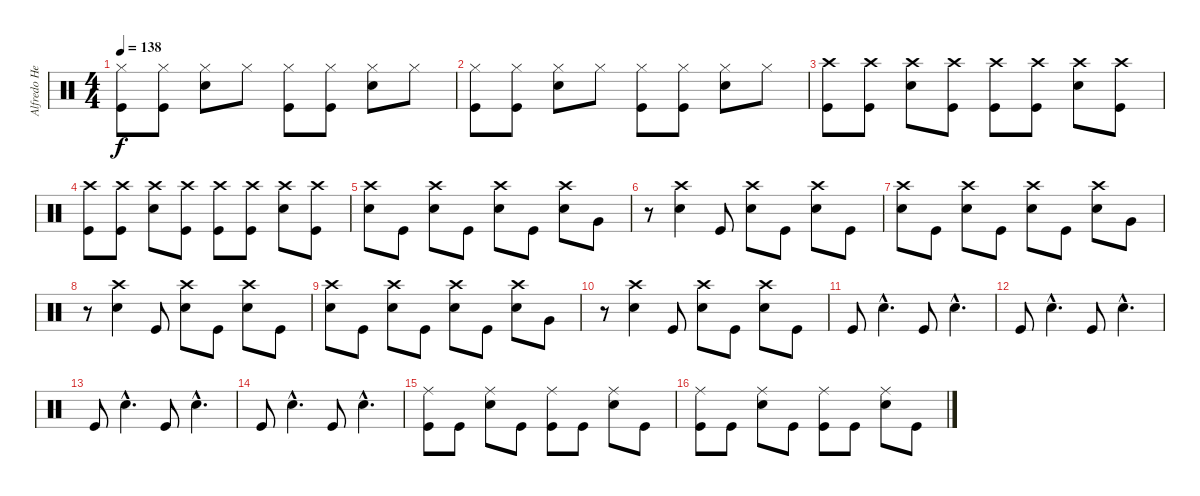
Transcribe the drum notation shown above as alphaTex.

\track ("Alfredo Hernandez" "Alfredo He") {instrument percussion}
\staff {score}
\articulation defaults
\ts (4 4)
\tempo 138
\clef neutral
\ks c
("Kick (hit)" "Hi-Hat (closed)").8{dy f} ("Kick (hit)" "Hi-Hat (closed)").8 ("Snare (hit) 2" "Hi-Hat (closed)").8 "Hi-Hat (closed)".8 ("Kick (hit)" "Hi-Hat (closed)").8 ("Kick (hit)" "Hi-Hat (closed)").8 ("Snare (hit) 2" "Hi-Hat (closed)").8 "Hi-Hat (closed)".8 |
("Kick (hit)" "Hi-Hat (closed)").8 ("Kick (hit)" "Hi-Hat (closed)").8 ("Snare (hit) 2" "Hi-Hat (closed)").8 "Hi-Hat (closed)".8 ("Kick (hit)" "Hi-Hat (closed)").8 ("Kick (hit)" "Hi-Hat (closed)").8 ("Snare (hit) 2" "Hi-Hat (closed)").8 "Hi-Hat (closed)".8 |
("Kick (hit)" "Crash high (hit)").8 ("Kick (hit)" "Crash high (hit)").8 ("Snare (hit) 2" "Crash high (hit)").8 ("Kick (hit)" "Crash high (hit)").8 ("Kick (hit)" "Crash high (hit)").8 ("Kick (hit)" "Crash high (hit)").8 ("Snare (hit) 2" "Crash high (hit)").8 ("Kick (hit)" "Crash high (hit)").8 |
("Kick (hit)" "Crash high (hit)").8 ("Kick (hit)" "Crash high (hit)").8 ("Snare (hit) 2" "Crash high (hit)").8 ("Kick (hit)" "Crash high (hit)").8 ("Kick (hit)" "Crash high (hit)").8 ("Kick (hit)" "Crash high (hit)").8 ("Snare (hit) 2" "Crash high (hit)").8 ("Kick (hit)" "Crash high (hit)").8 |
("Snare (hit) 2" "Crash high (hit)").8 "Kick (hit)".8 ("Snare (hit) 2" "Crash high (hit)").8 "Kick (hit)".8 ("Snare (hit) 2" "Crash high (hit)").8 "Kick (hit)".8 ("Snare (hit) 2" "Crash high (hit)").8 "Very Low Tom (hit)".8 |
r.8 ("Snare (hit) 2" "Crash high (hit)").4 "Kick (hit)".8 ("Snare (hit) 2" "Crash high (hit)").8 "Kick (hit)".8 ("Snare (hit) 2" "Crash high (hit)").8 "Kick (hit)".8 |
("Snare (hit) 2" "Crash high (hit)").8 "Kick (hit)".8 ("Snare (hit) 2" "Crash high (hit)").8 "Kick (hit)".8 ("Snare (hit) 2" "Crash high (hit)").8 "Kick (hit)".8 ("Snare (hit) 2" "Crash high (hit)").8 "Very Low Tom (hit)".8 |
r.8 ("Snare (hit) 2" "Crash high (hit)").4 "Kick (hit)".8 ("Snare (hit) 2" "Crash high (hit)").8 "Kick (hit)".8 ("Snare (hit) 2" "Crash high (hit)").8 "Kick (hit)".8 |
("Snare (hit) 2" "Crash high (hit)").8 "Kick (hit)".8 ("Snare (hit) 2" "Crash high (hit)").8 "Kick (hit)".8 ("Snare (hit) 2" "Crash high (hit)").8 "Kick (hit)".8 ("Snare (hit) 2" "Crash high (hit)").8 "Very Low Tom (hit)".8 |
r.8 ("Snare (hit) 2" "Crash high (hit)").4 "Kick (hit)".8 ("Snare (hit) 2" "Crash high (hit)").8 "Kick (hit)".8 ("Snare (hit) 2" "Crash high (hit)").8 "Kick (hit)".8 |
"Kick (hit)".8 "Snare (hit) 2"{hac}.4{d} "Kick (hit)".8 "Snare (hit) 2"{hac}.4{d} |
"Kick (hit)".8 "Snare (hit) 2"{hac}.4{d} "Kick (hit)".8 "Snare (hit) 2"{hac}.4{d} |
"Kick (hit)".8 "Snare (hit) 2"{hac}.4{d} "Kick (hit)".8 "Snare (hit) 2"{hac}.4{d} |
"Kick (hit)".8 "Snare (hit) 2"{hac}.4{d} "Kick (hit)".8 "Snare (hit) 2"{hac}.4{d} |
("Kick (hit)" "Ride (middle)").8 "Kick (hit)".8 ("Snare (hit) 2" "Ride (middle)").8 "Kick (hit)".8 ("Kick (hit)" "Ride (middle)").8 "Kick (hit)".8 ("Snare (hit) 2" "Ride (middle)").8 "Kick (hit)".8 |
("Kick (hit)" "Ride (middle)").8 "Kick (hit)".8 ("Snare (hit) 2" "Ride (middle)").8 "Kick (hit)".8 ("Kick (hit)" "Ride (middle)").8 "Kick (hit)".8 ("Snare (hit) 2" "Ride (middle)").8 "Kick (hit)".8
